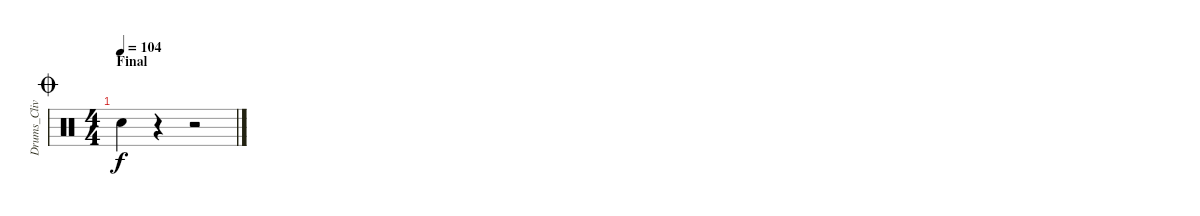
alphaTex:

\track ("Drums_CliveBurr" "Drums_Cliv") {instrument percussion}
\staff {score}
\articulation defaults
\ts (4 4)
\section ("" "Final")
\jump coda
\tempo 104
\clef neutral
\ks c "Snare (hit) 2".4{dy f}
r.4 r.2
